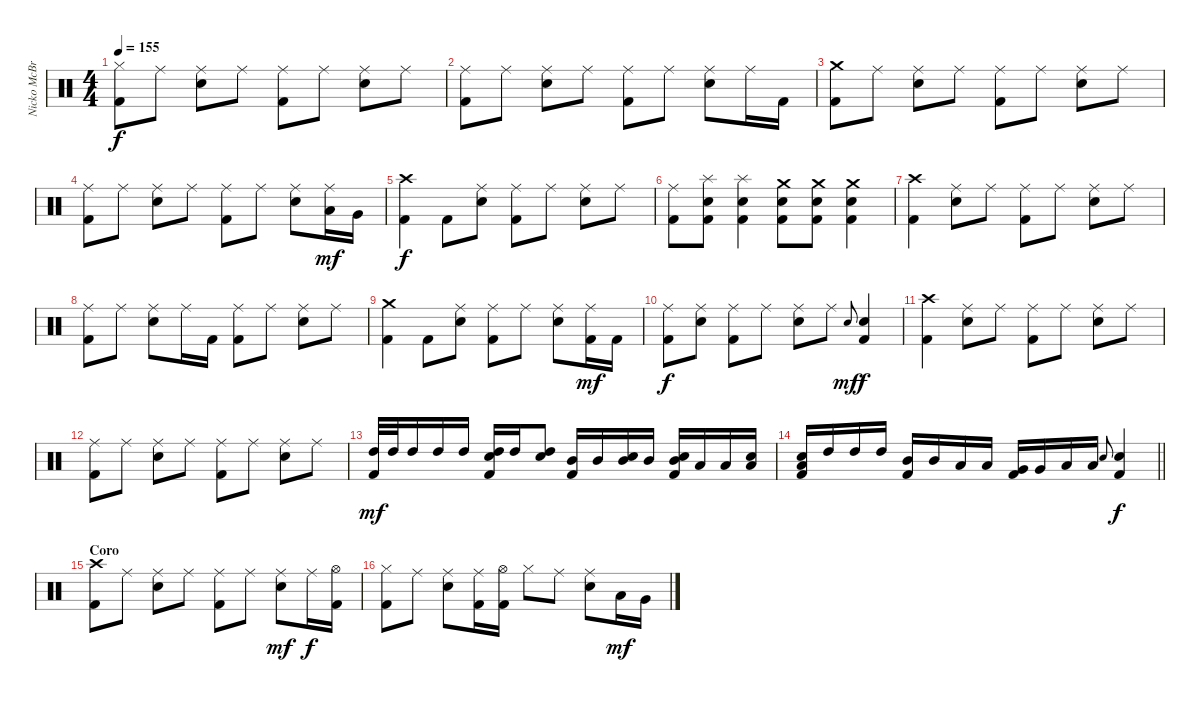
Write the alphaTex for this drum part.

\track ("Nicko McBrain" "Nicko McBr") {instrument percussion}
\staff {score}
\articulation defaults
\ts (4 4)
\tempo 155
\clef neutral
\ks c
("Hi-Hat (closed)" "Kick (hit) 2").8{dy f} "Ride (middle)".8 ("Ride (middle)" "Snare (hit) 2").8 "Ride (middle)".8 ("Ride (middle)" "Kick (hit) 2").8 "Ride (middle)".8 ("Ride (middle)" "Snare (hit) 2").8 "Ride (middle)".8 |
("Ride (middle)" "Kick (hit) 2").8 "Ride (middle)".8 ("Ride (middle)" "Snare (hit) 2").8 "Ride (middle)".8 ("Ride (middle)" "Kick (hit) 2").8 "Ride (middle)".8 ("Ride (middle)" "Snare (hit) 2").8 "Ride (middle)".16 "Kick (hit) 2".16 |
("Crash medium (hit)" "Kick (hit) 2").8 "Ride (middle)".8 ("Ride (middle)" "Snare (hit) 2").8 "Ride (middle)".8 ("Ride (middle)" "Kick (hit) 2").8 "Ride (middle)".8 ("Ride (middle)" "Snare (hit) 2").8 "Ride (middle)".8 |
("Ride (middle)" "Kick (hit) 2").8 "Ride (middle)".8 ("Ride (middle)" "Snare (hit) 2").8 "Ride (middle)".8 ("Ride (middle)" "Kick (hit) 2").8 "Ride (middle)".8 ("Ride (middle)" "Snare (hit) 2").8 ("Ride (middle)" "Low Tom (hit)").16{dy mf} "Very Low Tom (hit)".16 |
("Crash high (hit)" "Kick (hit) 2").4{dy f} "Kick (hit) 2".8 ("Ride (middle)" "Snare (hit) 2").8 ("Ride (middle)" "Kick (hit) 2").8 "Ride (middle)".8 ("Ride (middle)" "Snare (hit) 2").8 "Ride (middle)".8 |
("Ride (middle)" "Kick (hit) 2").8 ("Snare (hit) 2" "Splash (hit)" "Kick (hit) 2").8 ("Snare (hit) 2" "Splash (hit)" "Kick (hit) 2").4 ("Snare (hit) 2" "Crash medium (hit)" "Kick (hit) 2").8 ("Snare (hit) 2" "Crash medium (hit)" "Kick (hit) 2").8 ("Snare (hit) 2" "Crash medium (hit)" "Kick (hit) 2").4 |
("Crash high (hit)" "Kick (hit) 2").4 ("Ride (middle)" "Snare (hit) 2").8 "Ride (middle)".8 ("Ride (middle)" "Kick (hit) 2").8 "Ride (middle)".8 ("Ride (middle)" "Snare (hit) 2").8 "Ride (middle)".8 |
("Ride (middle)" "Kick (hit) 2").8 "Ride (middle)".8 ("Ride (middle)" "Snare (hit) 2").8 "Ride (middle)".16 "Kick (hit) 2".16 ("Ride (middle)" "Kick (hit) 2").8 "Ride (middle)".8 ("Ride (middle)" "Snare (hit) 2").8 "Ride (middle)".8 |
("Crash medium (hit)" "Kick (hit) 2").4 "Kick (hit) 2".8 ("Ride (middle)" "Snare (hit) 2").8 ("Ride (middle)" "Kick (hit) 2").8 "Ride (middle)".8 ("Ride (middle)" "Snare (hit) 2").8 ("Ride (middle)" "Kick (hit) 2").16{dy mf} "Kick (hit) 2".16 |
("Ride (middle)" "Kick (hit) 2").8{dy f} ("Ride (middle)" "Snare (hit) 2").8 ("Ride (middle)" "Kick (hit) 2").8 "Ride (middle)".8 ("Ride (middle)" "Snare (hit) 2").8 "Ride (middle)".8 "Snare (hit) 2".8{gr onbeat dy mf} ("Snare (hit) 2" "Kick (hit) 2").4{dy f} |
("Crash high (hit)" "Kick (hit) 2").4 ("Ride (middle)" "Snare (hit) 2").8 "Ride (middle)".8 ("Ride (middle)" "Kick (hit) 2").8 "Ride (middle)".8 ("Ride (middle)" "Snare (hit) 2").8 "Ride (middle)".8 |
("Ride (middle)" "Kick (hit) 2").8 "Ride (middle)".8 ("Ride (middle)" "Snare (hit) 2").8 "Ride (middle)".8 ("Ride (middle)" "Kick (hit) 2").8 "Ride (middle)".8 ("Ride (middle)" "Snare (hit) 2").8 "Ride (middle)".8 |
("High Tom (hit)" "Kick (hit) 2").32{dy mf} "High Tom (hit)".32 "High Tom (hit)".16 "High Tom (hit)".16 "High Tom (hit)".16 ("Snare (hit) 2" "High Tom (hit)" "Kick (hit) 2").16 "High Tom (hit)".16 ("Snare (hit) 2" "High Tom (hit)").8 ("Mid Tom (hit)" "Kick (hit) 2").16 "Mid Tom (hit)".16 ("Snare (hit) 2" "Mid Tom (hit)").16 "Mid Tom (hit)".16 ("Snare (hit) 2" "Mid Tom (hit)" "Kick (hit) 2").16 "Low Tom (hit)".16 "Low Tom (hit)".16 ("Snare (hit) 2" "Low Tom (hit)").16 |
\barLineRight lightlight
("Snare (hit) 2" "Low Tom (hit)" "Kick (hit) 2").16 "High Tom (hit)".16 "High Tom (hit)".16 "High Tom (hit)".16 ("Mid Tom (hit)" "Kick (hit) 2").16 "Mid Tom (hit)".16 "Low Tom (hit)".16 "Low Tom (hit)".16 ("Very Low Tom (hit)" "Kick (hit) 2").16 "Very Low Tom (hit)".16 "Low Floor Tom (hit)".16 "Low Floor Tom (hit)".16 "Snare (hit) 2".8{gr onbeat} ("Snare (hit) 2" "Kick (hit) 2").4{dy f} |
\section ("" "Coro")
("Crash high (hit)" "Kick (hit) 2").8 "Ride (middle)".8 ("Ride (middle)" "Snare (hit) 2").8 "Ride (middle)".8 ("Ride (middle)" "Kick (hit) 2").8 "Ride (middle)".8 ("Ride (middle)" "Snare (hit) 2").8{dy mf} "Ride (middle)".16{dy f} ("Hi-Hat (open)" "Kick (hit) 2").16 |
("Hi-Hat (closed)" "Kick (hit) 2").8 "Ride (middle)".8 ("Ride (middle)" "Snare (hit) 2").8 ("Ride (middle)" "Kick (hit) 2").16 ("Hi-Hat (open)" "Kick (hit) 2").16 "Hi-Hat (closed)".8 "Ride (middle)".8 ("Ride (middle)" "Snare (hit) 2").8 "Low Tom (hit)".16{dy mf} "Very Low Tom (hit)".16
